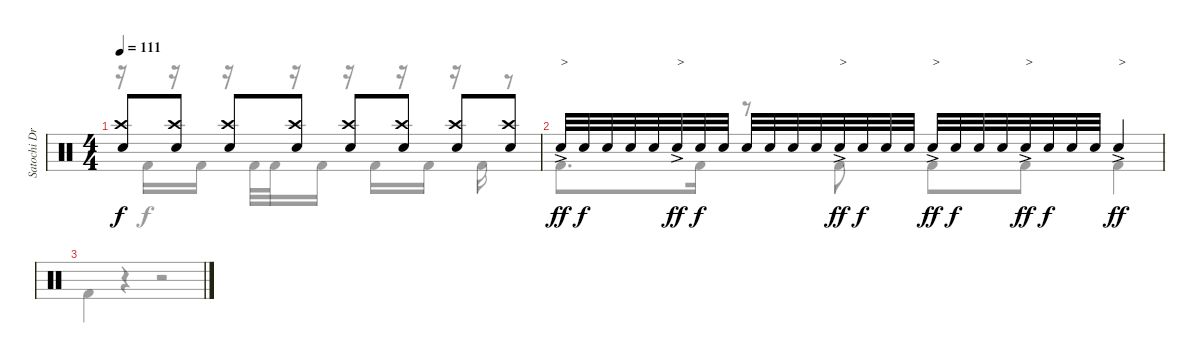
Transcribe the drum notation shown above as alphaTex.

\track ("Satochi Drums" "Satochi Dr") {instrument percussion}
\staff {score}
\articulation defaults
\voice
\ts (4 4)
\tempo 111
\clef neutral
\ks c
("Crash high (hit)" "Snare (hit) 2").8{dy f} ("Crash high (hit)" "Snare (hit) 2").8 ("Crash high (hit)" "Snare (hit) 2").8 ("Crash high (hit)" "Snare (hit) 2").8 ("Crash high (hit)" "Snare (hit) 2").8 ("Crash high (hit)" "Snare (hit) 2").8 ("Crash high (hit)" "Snare (hit) 2").8 ("Crash high (hit)" "Snare (hit) 2").8 |
"Snare (hit) 2"{ac}.32{txt ">" dy ff} "Snare (hit) 2".32{dy f} "Snare (hit) 2".32 "Snare (hit) 2".32 "Snare (hit) 2".32 "Snare (hit) 2"{ac}.32{txt ">" dy ff} "Snare (hit) 2".32{dy f} "Snare (hit) 2".32 "Snare (hit) 2".32 "Snare (hit) 2".32 "Snare (hit) 2".32 "Snare (hit) 2".32 "Snare (hit) 2"{ac}.32{txt ">" dy ff} "Snare (hit) 2".32{dy f} "Snare (hit) 2".32 "Snare (hit) 2".32 "Snare (hit) 2"{ac}.32{txt ">" dy ff} "Snare (hit) 2".32{dy f} "Snare (hit) 2".32 "Snare (hit) 2".32 "Snare (hit) 2"{ac}.32{txt ">" dy ff} "Snare (hit) 2".32{dy f} "Snare (hit) 2".32 "Snare (hit) 2".32 "Snare (hit) 2"{ac}.4{txt ">" dy ff} |
|
\voice
\clef neutral
\ottava regular
\simile none
\ks c
r.16{dy f} "Kick (hit) 2".16 r.16 "Kick (hit) 2".16 r.16 "Kick (hit) 2".32 "Kick (hit) 2".32 r.16 "Kick (hit) 2".16 r.16 "Kick (hit) 2".16 r.16 "Kick (hit) 2".16 r.16 "Kick (hit) 2".16 r.8 |
"Kick (hit) 2".8{d} "Kick (hit) 2".16 r.8 "Kick (hit) 2".8 "Kick (hit) 2".8 "Kick (hit) 2".8 "Kick (hit) 2".4 |
"Kick (hit) 2".4 r.4 r.2 |
